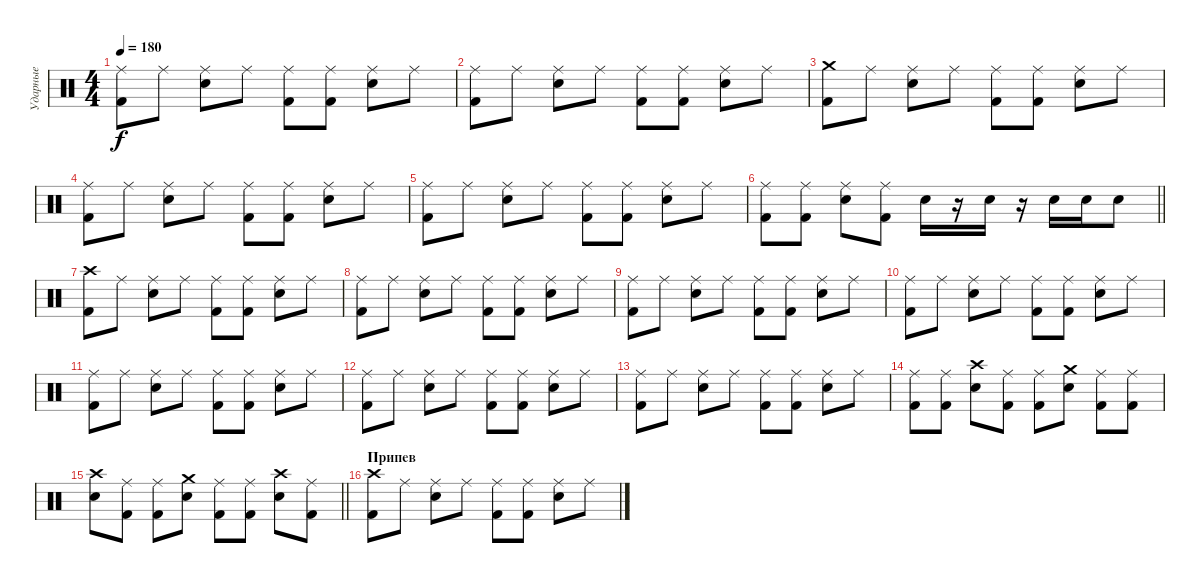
\track ("Ударные" "Ударные") {instrument percussion}
\staff {score}
\articulation defaults
\ts (4 4)
\tempo 180
\clef neutral
\ks c
("Ride (middle)" "Kick (hit) 2").8{dy f} "Ride (middle)".8 ("Ride (middle)" "Electric Snare (hit)").8 "Ride (middle)".8 ("Ride (middle)" "Kick (hit) 2").8 ("Ride (middle)" "Kick (hit) 2").8 ("Ride (middle)" "Electric Snare (hit)").8 "Ride (middle)".8 |
("Ride (middle)" "Kick (hit) 2").8 "Ride (middle)".8 ("Ride (middle)" "Electric Snare (hit)").8 "Ride (middle)".8 ("Ride (middle)" "Kick (hit) 2").8 ("Ride (middle)" "Kick (hit) 2").8 ("Ride (middle)" "Electric Snare (hit)").8 "Ride (middle)".8 |
("Crash medium (hit)" "Kick (hit) 2").8 "Ride (middle)".8 ("Ride (middle)" "Electric Snare (hit)").8 "Ride (middle)".8 ("Ride (middle)" "Kick (hit) 2").8 ("Ride (middle)" "Kick (hit) 2").8 ("Ride (middle)" "Electric Snare (hit)").8 "Ride (middle)".8 |
("Ride (middle)" "Kick (hit) 2").8 "Ride (middle)".8 ("Ride (middle)" "Electric Snare (hit)").8 "Ride (middle)".8 ("Ride (middle)" "Kick (hit) 2").8 ("Ride (middle)" "Kick (hit) 2").8 ("Ride (middle)" "Electric Snare (hit)").8 "Ride (middle)".8 |
("Ride (middle)" "Kick (hit) 2").8 "Ride (middle)".8 ("Ride (middle)" "Electric Snare (hit)").8 "Ride (middle)".8 ("Ride (middle)" "Kick (hit) 2").8 ("Ride (middle)" "Kick (hit) 2").8 ("Ride (middle)" "Electric Snare (hit)").8 "Ride (middle)".8 |
\barLineRight lightlight
("Ride (middle)" "Kick (hit) 2").8 ("Ride (middle)" "Kick (hit) 2").8 ("Ride (middle)" "Electric Snare (hit)").8 ("Ride (middle)" "Kick (hit) 2").8 "Electric Snare (hit)".16 r.16 "Electric Snare (hit)".16 r.16 "Electric Snare (hit)".16 "Electric Snare (hit)".16 "Electric Snare (hit)".8 |
("Crash high (hit)" "Kick (hit) 2").8 "Ride (middle)".8 ("Ride (middle)" "Electric Snare (hit)").8 "Ride (middle)".8 ("Ride (middle)" "Kick (hit) 2").8 ("Ride (middle)" "Kick (hit) 2").8 ("Ride (middle)" "Electric Snare (hit)").8 "Ride (middle)".8 |
("Ride (middle)" "Kick (hit) 2").8 "Ride (middle)".8 ("Ride (middle)" "Electric Snare (hit)").8 "Ride (middle)".8 ("Ride (middle)" "Kick (hit) 2").8 ("Ride (middle)" "Kick (hit) 2").8 ("Ride (middle)" "Electric Snare (hit)").8 "Ride (middle)".8 |
("Ride (middle)" "Kick (hit) 2").8 "Ride (middle)".8 ("Ride (middle)" "Electric Snare (hit)").8 "Ride (middle)".8 ("Ride (middle)" "Kick (hit) 2").8 ("Ride (middle)" "Kick (hit) 2").8 ("Ride (middle)" "Electric Snare (hit)").8 "Ride (middle)".8 |
("Ride (middle)" "Kick (hit) 2").8 "Ride (middle)".8 ("Ride (middle)" "Electric Snare (hit)").8 "Ride (middle)".8 ("Ride (middle)" "Kick (hit) 2").8 ("Ride (middle)" "Kick (hit) 2").8 ("Ride (middle)" "Electric Snare (hit)").8 "Ride (middle)".8 |
("Ride (middle)" "Kick (hit) 2").8 "Ride (middle)".8 ("Ride (middle)" "Electric Snare (hit)").8 "Ride (middle)".8 ("Ride (middle)" "Kick (hit) 2").8 ("Ride (middle)" "Kick (hit) 2").8 ("Ride (middle)" "Electric Snare (hit)").8 "Ride (middle)".8 |
("Ride (middle)" "Kick (hit) 2").8 "Ride (middle)".8 ("Ride (middle)" "Electric Snare (hit)").8 "Ride (middle)".8 ("Ride (middle)" "Kick (hit) 2").8 ("Ride (middle)" "Kick (hit) 2").8 ("Ride (middle)" "Electric Snare (hit)").8 "Ride (middle)".8 |
("Ride (middle)" "Kick (hit) 2").8 "Ride (middle)".8 ("Ride (middle)" "Electric Snare (hit)").8 "Ride (middle)".8 ("Ride (middle)" "Kick (hit) 2").8 ("Ride (middle)" "Kick (hit) 2").8 ("Ride (middle)" "Electric Snare (hit)").8 "Ride (middle)".8 |
("Ride (middle)" "Kick (hit) 2").8 ("Ride (middle)" "Kick (hit) 2").8 ("Crash high (hit)" "Electric Snare (hit)").8 ("Ride (middle)" "Kick (hit) 2").8 ("Ride (middle)" "Kick (hit) 2").8 ("Crash medium (hit)" "Electric Snare (hit)").8 ("Ride (middle)" "Kick (hit) 2").8 ("Ride (middle)" "Kick (hit) 2").8 |
\barLineRight lightlight
("Crash high (hit)" "Electric Snare (hit)").8 ("Ride (middle)" "Kick (hit) 2").8 ("Ride (middle)" "Kick (hit) 2").8 ("Crash medium (hit)" "Electric Snare (hit)").8 ("Ride (middle)" "Kick (hit) 2").8 ("Ride (middle)" "Kick (hit) 2").8 ("Crash high (hit)" "Electric Snare (hit)").8 ("Ride (middle)" "Kick (hit) 2").8 |
\section ("" "Припев")
("Crash high (hit)" "Kick (hit) 2").8 "Ride (middle)".8 ("Ride (middle)" "Electric Snare (hit)").8 "Ride (middle)".8 ("Ride (middle)" "Kick (hit) 2").8 ("Ride (middle)" "Kick (hit) 2").8 ("Ride (middle)" "Electric Snare (hit)").8 "Ride (middle)".8
